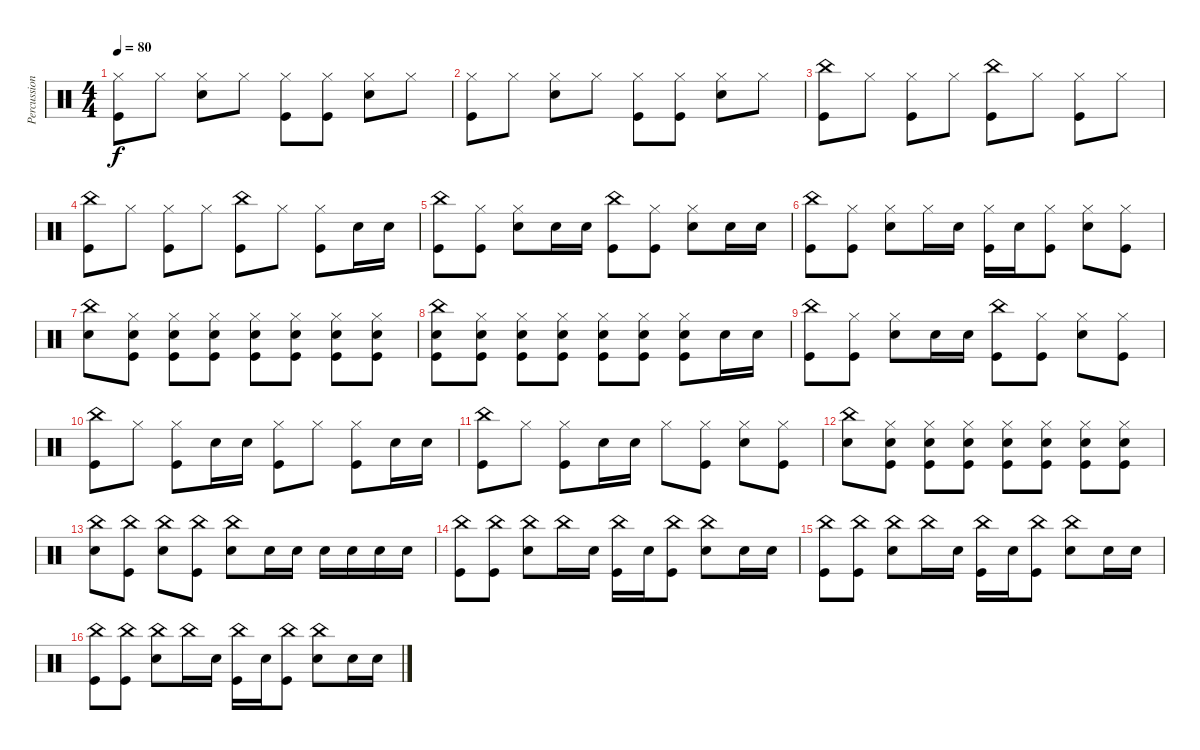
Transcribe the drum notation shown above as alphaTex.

\track ("Percussions" "Percussion") {instrument percussion}
\staff {score}
\articulation defaults
\ts (4 4)
\tempo 80
\clef neutral
\ks c
("Hi-Hat (closed)" "Kick (hit)").8{dy f} "Hi-Hat (closed)".8 ("Hi-Hat (closed)" "Snare (hit) 2").8 "Hi-Hat (closed)".8 ("Hi-Hat (closed)" "Kick (hit)").8 ("Hi-Hat (closed)" "Kick (hit)").8 ("Hi-Hat (closed)" "Snare (hit) 2").8 "Hi-Hat (closed)".8 |
("Hi-Hat (closed)" "Kick (hit)").8 "Hi-Hat (closed)".8 ("Hi-Hat (closed)" "Snare (hit) 2").8 "Hi-Hat (closed)".8 ("Hi-Hat (closed)" "Kick (hit)").8 ("Hi-Hat (closed)" "Kick (hit)").8 ("Hi-Hat (closed)" "Snare (hit) 2").8 "Hi-Hat (closed)".8 |
("China (hit)" "Kick (hit)").8 "Hi-Hat (closed)".8 ("Hi-Hat (closed)" "Kick (hit)").8 "Hi-Hat (closed)".8 ("China (hit)" "Kick (hit)").8 "Hi-Hat (closed)".8 ("Hi-Hat (closed)" "Kick (hit)").8 "Hi-Hat (closed)".8 |
("China (hit)" "Kick (hit)").8 "Hi-Hat (closed)".8 ("Hi-Hat (closed)" "Kick (hit)").8 "Hi-Hat (closed)".8 ("China (hit)" "Kick (hit)").8 "Hi-Hat (closed)".8 ("Hi-Hat (closed)" "Kick (hit)").8 "Snare (hit) 2".16 "Snare (hit) 2".16 |
("China (hit)" "Kick (hit)").8 ("Hi-Hat (closed)" "Kick (hit)").8 ("Hi-Hat (closed)" "Snare (hit) 2").8 "Snare (hit) 2".16 "Snare (hit) 2".16 ("China (hit)" "Kick (hit)").8 ("Hi-Hat (closed)" "Kick (hit)").8 ("Hi-Hat (closed)" "Snare (hit) 2").8 "Snare (hit) 2".16 "Snare (hit) 2".16 |
("China (hit)" "Kick (hit)").8 ("Hi-Hat (closed)" "Kick (hit)").8 ("Hi-Hat (closed)" "Snare (hit) 2").8 "Hi-Hat (closed)".16 "Snare (hit) 2".16 ("Hi-Hat (closed)" "Kick (hit)").16 "Snare (hit) 2".16 ("Hi-Hat (closed)" "Kick (hit)").8 ("Hi-Hat (closed)" "Snare (hit) 2").8 ("Hi-Hat (closed)" "Kick (hit)").8 |
("China (hit)" "Snare (hit) 2").8 ("Hi-Hat (closed)" "Snare (hit) 2" "Kick (hit)").8 ("Hi-Hat (closed)" "Snare (hit) 2" "Kick (hit)").8 ("Hi-Hat (closed)" "Snare (hit) 2" "Kick (hit)").8 ("Hi-Hat (closed)" "Snare (hit) 2" "Kick (hit)").8 ("Hi-Hat (closed)" "Snare (hit) 2" "Kick (hit)").8 ("Hi-Hat (closed)" "Snare (hit) 2" "Kick (hit)").8 ("Hi-Hat (closed)" "Snare (hit) 2" "Kick (hit)").8 |
("China (hit)" "Snare (hit) 2" "Kick (hit)").8 ("Hi-Hat (closed)" "Snare (hit) 2" "Kick (hit)").8 ("Hi-Hat (closed)" "Snare (hit) 2" "Kick (hit)").8 ("Hi-Hat (closed)" "Snare (hit) 2" "Kick (hit)").8 ("Hi-Hat (closed)" "Snare (hit) 2" "Kick (hit)").8 ("Hi-Hat (closed)" "Snare (hit) 2" "Kick (hit)").8 ("Hi-Hat (closed)" "Snare (hit) 2" "Kick (hit)").8 "Snare (hit) 2".16 "Snare (hit) 2".16 |
("China (hit)" "Kick (hit)").8 ("Hi-Hat (closed)" "Kick (hit)").8 ("Hi-Hat (closed)" "Snare (hit) 2").8 "Snare (hit) 2".16 "Snare (hit) 2".16 ("China (hit)" "Kick (hit)").8 ("Hi-Hat (closed)" "Kick (hit)").8 ("Hi-Hat (closed)" "Snare (hit) 2").8 ("Hi-Hat (closed)" "Kick (hit)").8 |
("China (hit)" "Kick (hit)").8 "Hi-Hat (closed)".8 ("Hi-Hat (closed)" "Kick (hit)").8 "Snare (hit) 2".16 "Snare (hit) 2".16 ("Hi-Hat (closed)" "Kick (hit)").8 "Hi-Hat (closed)".8 ("Hi-Hat (closed)" "Kick (hit)").8 "Snare (hit) 2".16 "Snare (hit) 2".16 |
("China (hit)" "Kick (hit)").8 "Hi-Hat (closed)".8 ("Hi-Hat (closed)" "Kick (hit)").8 "Snare (hit) 2".16 "Snare (hit) 2".16 "Hi-Hat (closed)".8 ("Hi-Hat (closed)" "Kick (hit)").8 ("Hi-Hat (closed)" "Snare (hit) 2").8 ("Hi-Hat (closed)" "Kick (hit)").8 |
("China (hit)" "Snare (hit) 2").8 ("Hi-Hat (closed)" "Snare (hit) 2" "Kick (hit)").8 ("Hi-Hat (closed)" "Snare (hit) 2" "Kick (hit)").8 ("Hi-Hat (closed)" "Snare (hit) 2" "Kick (hit)").8 ("Hi-Hat (closed)" "Snare (hit) 2" "Kick (hit)").8 ("Hi-Hat (closed)" "Snare (hit) 2" "Kick (hit)").8 ("Hi-Hat (closed)" "Snare (hit) 2" "Kick (hit)").8 ("Hi-Hat (closed)" "Snare (hit) 2" "Kick (hit)").8 |
("China (hit)" "Snare (hit) 2").8 ("China (hit)" "Kick (hit)").8 ("China (hit)" "Snare (hit) 2").8 ("China (hit)" "Kick (hit)").8 ("China (hit)" "Snare (hit) 2").8 "Snare (hit) 2".16 "Snare (hit) 2".16 "Snare (hit) 2".16 "Snare (hit) 2".16 "Snare (hit) 2".16 "Snare (hit) 2".16 |
("China (hit)" "Kick (hit)").8 ("China (hit)" "Kick (hit)").8 ("China (hit)" "Snare (hit) 2").8 "China (hit)".16 "Snare (hit) 2".16 ("China (hit)" "Kick (hit)").16 "Snare (hit) 2".16 ("China (hit)" "Kick (hit)").8 ("China (hit)" "Snare (hit) 2").8 "Snare (hit) 2".16 "Snare (hit) 2".16 |
("China (hit)" "Kick (hit)").8 ("China (hit)" "Kick (hit)").8 ("China (hit)" "Snare (hit) 2").8 "China (hit)".16 "Snare (hit) 2".16 ("China (hit)" "Kick (hit)").16 "Snare (hit) 2".16 ("China (hit)" "Kick (hit)").8 ("China (hit)" "Snare (hit) 2").8 "Snare (hit) 2".16 "Snare (hit) 2".16 |
("China (hit)" "Kick (hit)").8 ("China (hit)" "Kick (hit)").8 ("China (hit)" "Snare (hit) 2").8 "China (hit)".16 "Snare (hit) 2".16 ("China (hit)" "Kick (hit)").16 "Snare (hit) 2".16 ("China (hit)" "Kick (hit)").8 ("China (hit)" "Snare (hit) 2").8 "Snare (hit) 2".16 "Snare (hit) 2".16
